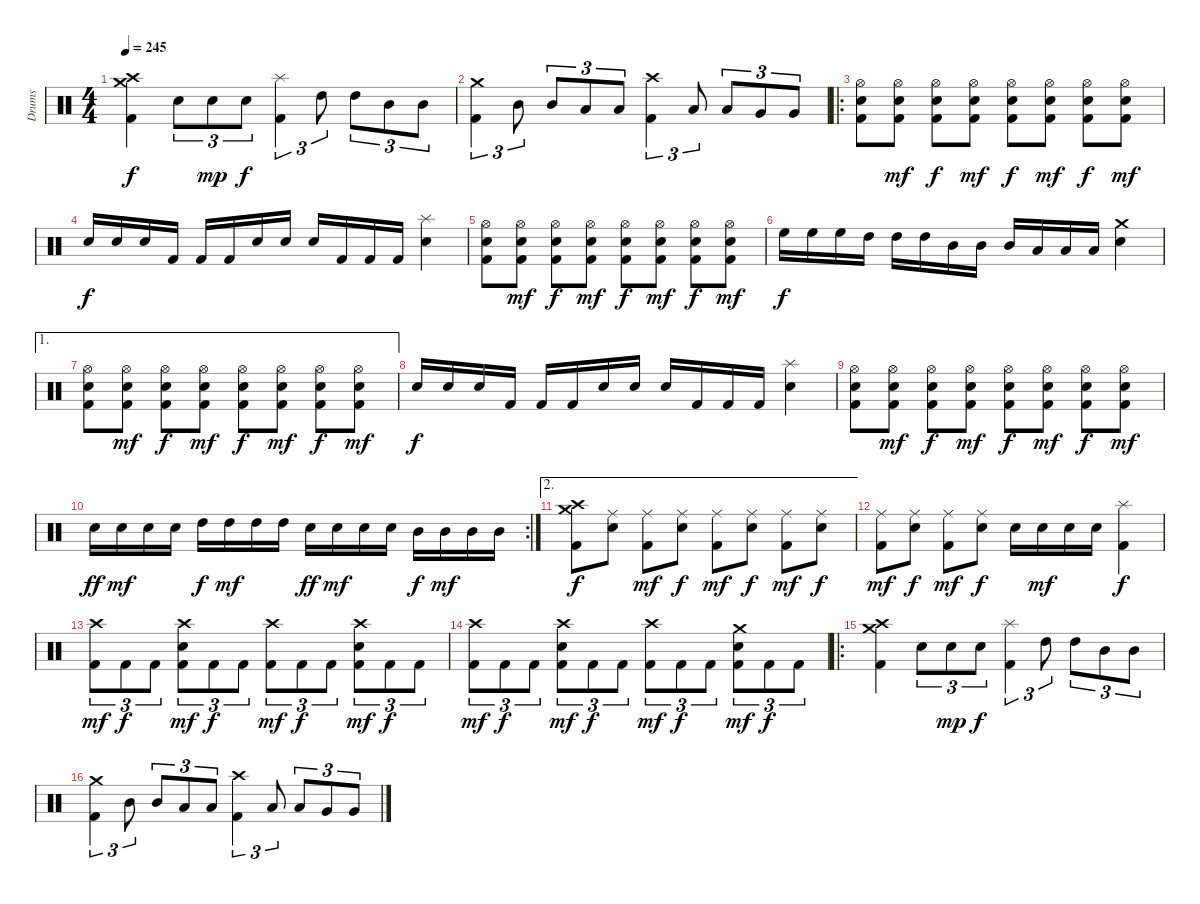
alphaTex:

\track ("Drums" "Drums") {instrument percussion}
\staff {score}
\articulation defaults
\ts (4 4)
\tempo 245
\clef neutral
\ks c
("Crash high (hit)" "Crash medium (hit)" "Kick (hit) 2").4{dy f} "Electric Snare (hit)".8{tu (3 2)} "Electric Snare (hit)".8{tu (3 2) dy mp} "Electric Snare (hit)".8{tu (3 2) dy f} ("Splash (hit)" "Kick (hit) 2").4{tu (3 2)} "High Tom (hit)".8{tu (3 2)} "High Tom (hit)".8{tu (3 2)} "Mid Tom (hit)".8{tu (3 2)} "Mid Tom (hit)".8{tu (3 2)} |
("Crash medium (hit)" "Kick (hit) 2").4{tu (3 2)} "Mid Tom (hit)".8{tu (3 2)} "Mid Tom (hit)".8{tu (3 2)} "Low Tom (hit)".8{tu (3 2)} "Low Tom (hit)".8{tu (3 2)} ("Crash high (hit)" "Kick (hit) 2").4{tu (3 2)} "Low Tom (hit)".8{tu (3 2)} "Low Tom (hit)".8{tu (3 2)} "Very Low Tom (hit)".8{tu (3 2)} "Very Low Tom (hit)".8{tu (3 2)} |
\ro
("Hi-Hat (open)" "Electric Snare (hit)" "Kick (hit) 2").8 ("Hi-Hat (open)" "Electric Snare (hit)" "Kick (hit) 2").8{dy mf} ("Hi-Hat (open)" "Electric Snare (hit)" "Kick (hit) 2").8{dy f} ("Hi-Hat (open)" "Electric Snare (hit)" "Kick (hit) 2").8{dy mf} ("Hi-Hat (open)" "Electric Snare (hit)" "Kick (hit) 2").8{dy f} ("Hi-Hat (open)" "Electric Snare (hit)" "Kick (hit) 2").8{dy mf} ("Hi-Hat (open)" "Electric Snare (hit)" "Kick (hit) 2").8{dy f} ("Hi-Hat (open)" "Electric Snare (hit)" "Kick (hit) 2").8{dy mf} |
"Electric Snare (hit)".16{dy f} "Electric Snare (hit)".16 "Electric Snare (hit)".16 "Kick (hit) 2".16 "Kick (hit) 2".16 "Kick (hit) 2".16 "Electric Snare (hit)".16 "Electric Snare (hit)".16 "Electric Snare (hit)".16 "Kick (hit) 2".16 "Kick (hit) 2".16 "Kick (hit) 2".16 ("Splash (hit)" "Electric Snare (hit)").4 |
("Hi-Hat (open)" "Electric Snare (hit)" "Kick (hit) 2").8 ("Hi-Hat (open)" "Electric Snare (hit)" "Kick (hit) 2").8{dy mf} ("Hi-Hat (open)" "Electric Snare (hit)" "Kick (hit) 2").8{dy f} ("Hi-Hat (open)" "Electric Snare (hit)" "Kick (hit) 2").8{dy mf} ("Hi-Hat (open)" "Electric Snare (hit)" "Kick (hit) 2").8{dy f} ("Hi-Hat (open)" "Electric Snare (hit)" "Kick (hit) 2").8{dy mf} ("Hi-Hat (open)" "Electric Snare (hit)" "Kick (hit) 2").8{dy f} ("Hi-Hat (open)" "Electric Snare (hit)" "Kick (hit) 2").8{dy mf} |
"High Floor Tom (hit)".16{dy f} "High Floor Tom (hit)".16 "High Floor Tom (hit)".16 "High Tom (hit)".16 "High Tom (hit)".16 "High Tom (hit)".16 "Mid Tom (hit)".16 "Mid Tom (hit)".16 "Mid Tom (hit)".16 "Low Tom (hit)".16 "Low Tom (hit)".16 "Low Tom (hit)".16 ("Crash medium (hit)" "Electric Snare (hit)").4 |
\ae 1
("Hi-Hat (open)" "Electric Snare (hit)" "Kick (hit) 2").8 ("Hi-Hat (open)" "Electric Snare (hit)" "Kick (hit) 2").8{dy mf} ("Hi-Hat (open)" "Electric Snare (hit)" "Kick (hit) 2").8{dy f} ("Hi-Hat (open)" "Electric Snare (hit)" "Kick (hit) 2").8{dy mf} ("Hi-Hat (open)" "Electric Snare (hit)" "Kick (hit) 2").8{dy f} ("Hi-Hat (open)" "Electric Snare (hit)" "Kick (hit) 2").8{dy mf} ("Hi-Hat (open)" "Electric Snare (hit)" "Kick (hit) 2").8{dy f} ("Hi-Hat (open)" "Electric Snare (hit)" "Kick (hit) 2").8{dy mf} |
"Electric Snare (hit)".16{dy f} "Electric Snare (hit)".16 "Electric Snare (hit)".16 "Kick (hit) 2".16 "Kick (hit) 2".16 "Kick (hit) 2".16 "Electric Snare (hit)".16 "Electric Snare (hit)".16 "Electric Snare (hit)".16 "Kick (hit) 2".16 "Kick (hit) 2".16 "Kick (hit) 2".16 ("Splash (hit)" "Electric Snare (hit)").4 |
("Hi-Hat (open)" "Electric Snare (hit)" "Kick (hit) 2").8 ("Hi-Hat (open)" "Electric Snare (hit)" "Kick (hit) 2").8{dy mf} ("Hi-Hat (open)" "Electric Snare (hit)" "Kick (hit) 2").8{dy f} ("Hi-Hat (open)" "Electric Snare (hit)" "Kick (hit) 2").8{dy mf} ("Hi-Hat (open)" "Electric Snare (hit)" "Kick (hit) 2").8{dy f} ("Hi-Hat (open)" "Electric Snare (hit)" "Kick (hit) 2").8{dy mf} ("Hi-Hat (open)" "Electric Snare (hit)" "Kick (hit) 2").8{dy f} ("Hi-Hat (open)" "Electric Snare (hit)" "Kick (hit) 2").8{dy mf} |
\rc 2 "Electric Snare (hit)".16{dy ff} "Electric Snare (hit)".16{dy mf} "Electric Snare (hit)".16 "Electric Snare (hit)".16 "High Tom (hit)".16{dy f} "High Tom (hit)".16{dy mf} "High Tom (hit)".16 "High Tom (hit)".16 "Electric Snare (hit)".16{dy ff} "Electric Snare (hit)".16{dy mf} "Electric Snare (hit)".16 "Electric Snare (hit)".16 "Mid Tom (hit)".16{dy f} "Mid Tom (hit)".16{dy mf} "Mid Tom (hit)".16 "Mid Tom (hit)".16
|
\ae 2
("Crash high (hit)" "Crash medium (hit)" "Kick (hit) 2").8{dy f} ("Ride (middle)" "Electric Snare (hit)").8 ("Ride (middle)" "Kick (hit) 2").8{dy mf} ("Ride (middle)" "Electric Snare (hit)").8{dy f} ("Ride (middle)" "Kick (hit) 2").8{dy mf} ("Ride (middle)" "Electric Snare (hit)").8{dy f} ("Ride (middle)" "Kick (hit) 2").8{dy mf} ("Ride (middle)" "Electric Snare (hit)").8{dy f} |
("Ride (middle)" "Kick (hit) 2").8{dy mf} ("Ride (middle)" "Electric Snare (hit)").8{dy f} ("Ride (middle)" "Kick (hit) 2").8{dy mf} ("Ride (middle)" "Electric Snare (hit)").8{dy f} "Electric Snare (hit)".16 "Electric Snare (hit)".16{dy mf} "Electric Snare (hit)".16 "Electric Snare (hit)".16 ("Splash (hit)" "Kick (hit) 2").4{dy f} |
("Crash high (hit)" "Kick (hit) 2").8{tu (3 2) dy mf} "Kick (hit) 2".8{tu (3 2) dy f} "Kick (hit) 2".8{tu (3 2)} ("Crash high (hit)" "Electric Snare (hit)" "Kick (hit) 2").8{tu (3 2) dy mf} "Kick (hit) 2".8{tu (3 2) dy f} "Kick (hit) 2".8{tu (3 2)} ("Crash high (hit)" "Kick (hit) 2").8{tu (3 2) dy mf} "Kick (hit) 2".8{tu (3 2) dy f} "Kick (hit) 2".8{tu (3 2)} ("Crash high (hit)" "Electric Snare (hit)" "Kick (hit) 2").8{tu (3 2) dy mf} "Kick (hit) 2".8{tu (3 2) dy f} "Kick (hit) 2".8{tu (3 2)} |
("Crash high (hit)" "Kick (hit) 2").8{tu (3 2) dy mf} "Kick (hit) 2".8{tu (3 2) dy f} "Kick (hit) 2".8{tu (3 2)} ("Crash high (hit)" "Electric Snare (hit)" "Kick (hit) 2").8{tu (3 2) dy mf} "Kick (hit) 2".8{tu (3 2) dy f} "Kick (hit) 2".8{tu (3 2)} ("Crash high (hit)" "Kick (hit) 2").8{tu (3 2) dy mf} "Kick (hit) 2".8{tu (3 2) dy f} "Kick (hit) 2".8{tu (3 2)} ("Crash medium (hit)" "Electric Snare (hit)" "Kick (hit) 2").8{tu (3 2) dy mf} "Kick (hit) 2".8{tu (3 2) dy f} "Kick (hit) 2".8{tu (3 2)} |
\ro
("Crash high (hit)" "Crash medium (hit)" "Kick (hit) 2").4 "Electric Snare (hit)".8{tu (3 2)} "Electric Snare (hit)".8{tu (3 2) dy mp} "Electric Snare (hit)".8{tu (3 2) dy f} ("Splash (hit)" "Kick (hit) 2").4{tu (3 2)} "High Tom (hit)".8{tu (3 2)} "High Tom (hit)".8{tu (3 2)} "Mid Tom (hit)".8{tu (3 2)} "Mid Tom (hit)".8{tu (3 2)} |
("Crash medium (hit)" "Kick (hit) 2").4{tu (3 2)} "Mid Tom (hit)".8{tu (3 2)} "Mid Tom (hit)".8{tu (3 2)} "Low Tom (hit)".8{tu (3 2)} "Low Tom (hit)".8{tu (3 2)} ("Crash high (hit)" "Kick (hit) 2").4{tu (3 2)} "Low Tom (hit)".8{tu (3 2)} "Low Tom (hit)".8{tu (3 2)} "Very Low Tom (hit)".8{tu (3 2)} "Very Low Tom (hit)".8{tu (3 2)}
